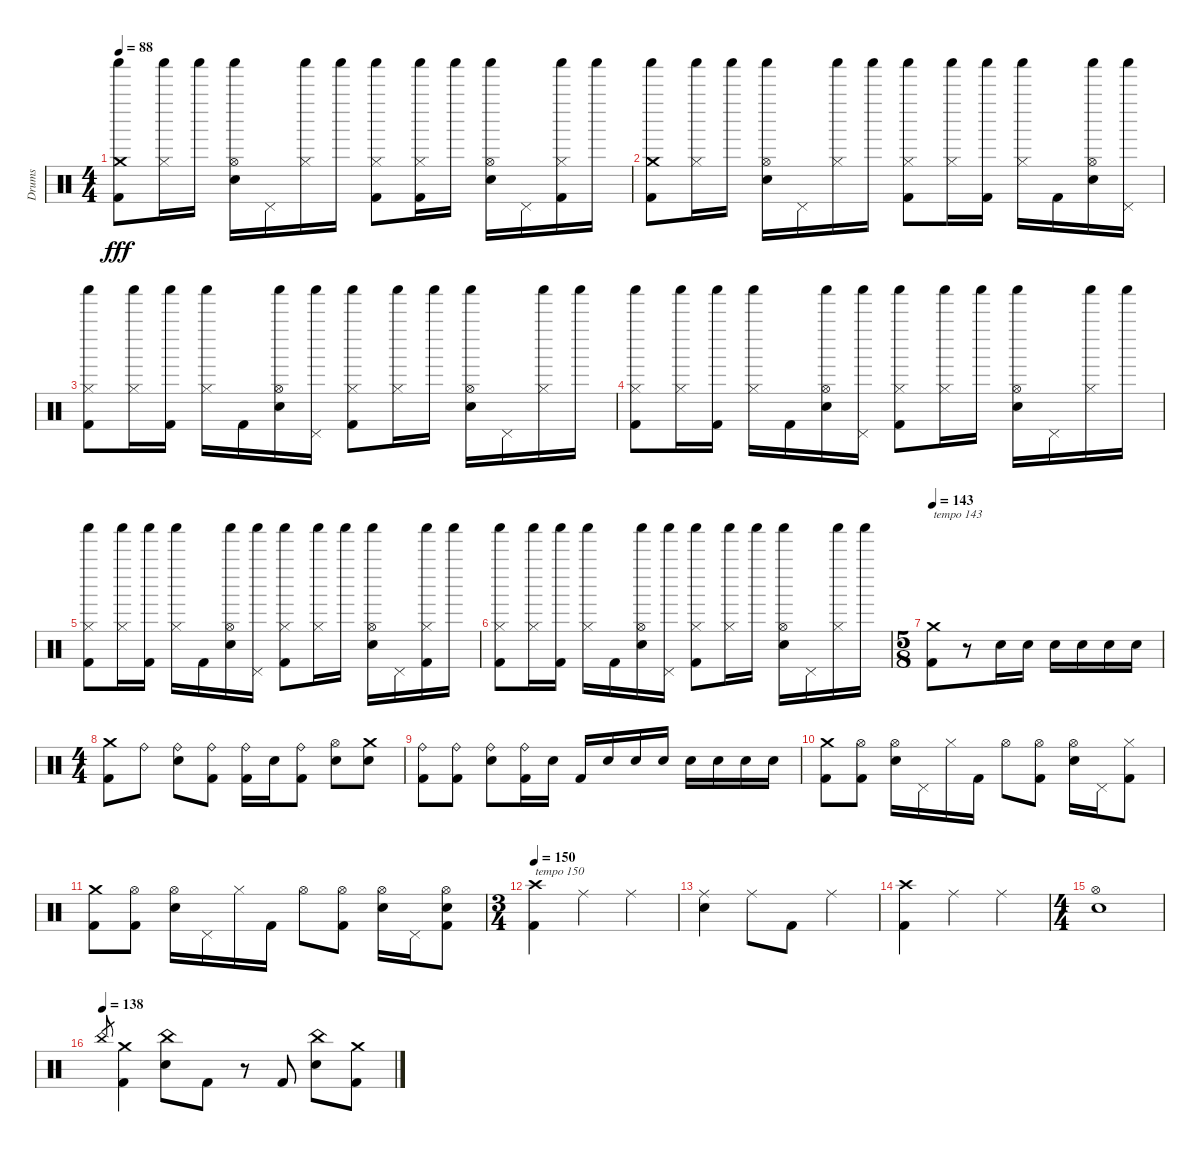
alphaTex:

\track ("Drums" "Drums") {instrument percussion}
\staff {score}
\articulation defaults
\ts (4 4)
\tempo 88
\clef neutral
\ks c
("Crash medium (hit)" "Shaker (hit)" "Kick (hit) 2").8{dy fff} ("Hi-Hat (closed)" "Shaker (hit)").16 "Shaker (hit)".16 ("Hi-Hat (open)" "Shaker (hit)" "Snare (hit) 2").16 "Pedal Hi-Hat (hit)".16 ("Hi-Hat (closed)" "Shaker (hit)").16 "Shaker (hit)".16 ("Hi-Hat (closed)" "Shaker (hit)" "Kick (hit) 2").8 ("Hi-Hat (closed)" "Shaker (hit)" "Kick (hit) 2").16 "Shaker (hit)".16 ("Hi-Hat (open)" "Shaker (hit)" "Snare (hit) 2").16 "Pedal Hi-Hat (hit)".16 ("Hi-Hat (closed)" "Shaker (hit)" "Kick (hit) 2").16 "Shaker (hit)".16 |
("Crash medium (hit)" "Shaker (hit)" "Kick (hit) 2").8 ("Hi-Hat (closed)" "Shaker (hit)").16 "Shaker (hit)".16 ("Hi-Hat (open)" "Shaker (hit)" "Snare (hit) 2").16 "Pedal Hi-Hat (hit)".16 ("Hi-Hat (closed)" "Shaker (hit)").16 "Shaker (hit)".16 ("Hi-Hat (closed)" "Shaker (hit)" "Kick (hit) 2").8 ("Hi-Hat (closed)" "Shaker (hit)").16 ("Shaker (hit)" "Kick (hit) 2").16 ("Hi-Hat (closed)" "Shaker (hit)").16 "Kick (hit) 2".16 ("Hi-Hat (open)" "Shaker (hit)" "Snare (hit) 2").16 ("Pedal Hi-Hat (hit)" "Shaker (hit)").16 |
("Hi-Hat (closed)" "Shaker (hit)" "Kick (hit) 2").8 ("Hi-Hat (closed)" "Shaker (hit)").16 ("Shaker (hit)" "Kick (hit) 2").16 ("Hi-Hat (closed)" "Shaker (hit)").16 "Kick (hit) 2".16 ("Hi-Hat (open)" "Shaker (hit)" "Snare (hit) 2").16 ("Pedal Hi-Hat (hit)" "Shaker (hit)").16 ("Hi-Hat (closed)" "Shaker (hit)" "Kick (hit) 2").8 ("Hi-Hat (closed)" "Shaker (hit)").16 "Shaker (hit)".16 ("Hi-Hat (open)" "Shaker (hit)" "Snare (hit) 2").16 "Pedal Hi-Hat (hit)".16 ("Hi-Hat (closed)" "Shaker (hit)").16 "Shaker (hit)".16 |
("Hi-Hat (closed)" "Shaker (hit)" "Kick (hit) 2").8 ("Hi-Hat (closed)" "Shaker (hit)").16 ("Shaker (hit)" "Kick (hit) 2").16 ("Hi-Hat (closed)" "Shaker (hit)").16 "Kick (hit) 2".16 ("Hi-Hat (open)" "Shaker (hit)" "Snare (hit) 2").16 ("Pedal Hi-Hat (hit)" "Shaker (hit)").16 ("Hi-Hat (closed)" "Shaker (hit)" "Kick (hit) 2").8 ("Hi-Hat (closed)" "Shaker (hit)").16 "Shaker (hit)".16 ("Hi-Hat (open)" "Shaker (hit)" "Snare (hit) 2").16 "Pedal Hi-Hat (hit)".16 ("Hi-Hat (closed)" "Shaker (hit)").16 "Shaker (hit)".16 |
("Hi-Hat (closed)" "Shaker (hit)" "Kick (hit) 2").8 ("Hi-Hat (closed)" "Shaker (hit)").16 ("Shaker (hit)" "Kick (hit) 2").16 ("Hi-Hat (closed)" "Shaker (hit)").16 "Kick (hit) 2".16 ("Hi-Hat (open)" "Shaker (hit)" "Snare (hit) 2").16 ("Pedal Hi-Hat (hit)" "Shaker (hit)").16 ("Hi-Hat (closed)" "Shaker (hit)" "Kick (hit) 2").8 ("Hi-Hat (closed)" "Shaker (hit)").16 "Shaker (hit)".16 ("Hi-Hat (open)" "Shaker (hit)" "Snare (hit) 2").16 "Pedal Hi-Hat (hit)".16 ("Hi-Hat (closed)" "Shaker (hit)" "Kick (hit) 2").16 "Shaker (hit)".16 |
("Hi-Hat (closed)" "Shaker (hit)" "Kick (hit) 2").8 ("Hi-Hat (closed)" "Shaker (hit)").16 ("Shaker (hit)" "Kick (hit) 2").16 ("Hi-Hat (closed)" "Shaker (hit)").16 "Kick (hit) 2".16 ("Hi-Hat (open)" "Shaker (hit)" "Snare (hit) 2").16 ("Pedal Hi-Hat (hit)" "Shaker (hit)").16 ("Hi-Hat (closed)" "Shaker (hit)" "Kick (hit) 2").8 ("Hi-Hat (closed)" "Shaker (hit)").16 "Shaker (hit)".16 ("Hi-Hat (open)" "Shaker (hit)" "Snare (hit) 2").16 "Pedal Hi-Hat (hit)".16 ("Hi-Hat (closed)" "Shaker (hit)").16 "Shaker (hit)".16 |
\ts (5 8)
\tempo 143
("Crash medium (hit)" "Kick (hit) 2").8{txt "tempo 143"} r.8 "Snare (hit) 2".16 "Snare (hit) 2".16 "Snare (hit) 2".16 "Snare (hit) 2".16 "Snare (hit) 2".16 "Snare (hit) 2".16 |
\ts (4 4)
("Crash medium (hit)" "Kick (hit) 2").8 "Ride (bell)".8 ("Ride (bell)" "Snare (hit) 2").8 ("Ride (bell)" "Kick (hit) 2").8 ("Ride (bell)" "Kick (hit) 2").16 "Snare (hit) 2".16 ("Ride (bell)" "Kick (hit) 2").8 ("Hi-Hat (open)" "Snare (hit) 2").8 ("Crash medium (hit)" "Snare (hit) 2").8 |
("Ride (bell)" "Kick (hit) 2").8 ("Ride (bell)" "Kick (hit) 2").8 ("Ride (bell)" "Snare (hit) 2").8 ("Ride (bell)" "Kick (hit) 2").16 "Snare (hit) 2".16 "Kick (hit) 2".16 "Snare (hit) 2".16 "Snare (hit) 2".16 "Snare (hit) 2".16 "Snare (hit) 2".16 "Snare (hit) 2".16 "Snare (hit) 2".16 "Snare (hit) 2".16 |
("Crash medium (hit)" "Kick (hit) 2").8 ("Hi-Hat (open)" "Kick (hit) 2").8 ("Hi-Hat (open)" "Snare (hit) 2").16 "Pedal Hi-Hat (hit)".16 "Hi-Hat (closed)".16 "Kick (hit) 2".16 "Hi-Hat (open)".8 ("Hi-Hat (open)" "Kick (hit) 2").8 ("Hi-Hat (open)" "Snare (hit) 2").16 "Pedal Hi-Hat (hit)".16 ("Hi-Hat (closed)" "Kick (hit) 2").8 |
("Crash medium (hit)" "Kick (hit) 2").8 ("Hi-Hat (open)" "Kick (hit) 2").8 ("Hi-Hat (open)" "Snare (hit) 2").16 "Pedal Hi-Hat (hit)".16 "Hi-Hat (closed)".16 "Kick (hit) 2".16 "Hi-Hat (open)".8 ("Hi-Hat (open)" "Kick (hit) 2").8 ("Hi-Hat (open)" "Snare (hit) 2").16 "Pedal Hi-Hat (hit)".16 ("Hi-Hat (open)" "Snare (hit) 2" "Kick (hit) 2").8 |
\ts (3 4)
\tempo 150
("Crash high (hit)" "Kick (hit) 2").4{txt "tempo 150"} "Ride (middle)".4 "Ride (middle)".4 |
("Ride (middle)" "Snare (hit) 2").4 "Ride (middle)".8 "Kick (hit) 2".8 "Ride (middle)".4 |
("Crash high (hit)" "Kick (hit) 2").4 "Ride (middle)".4 "Ride (middle)".4 |
\ts (4 4)
("Hi-Hat (open)" "Snare (hit) 2").1 |
\tempo (138)
"China (hit)".8{gr} ("Crash medium (hit)" "Kick (hit) 2").4 ("China (hit)" "Snare (hit) 2").8 "Kick (hit) 2".8 r.8 "Kick (hit) 2".8 ("China (hit)" "Snare (hit) 2").8 ("Crash medium (hit)" "Kick (hit) 2").8
